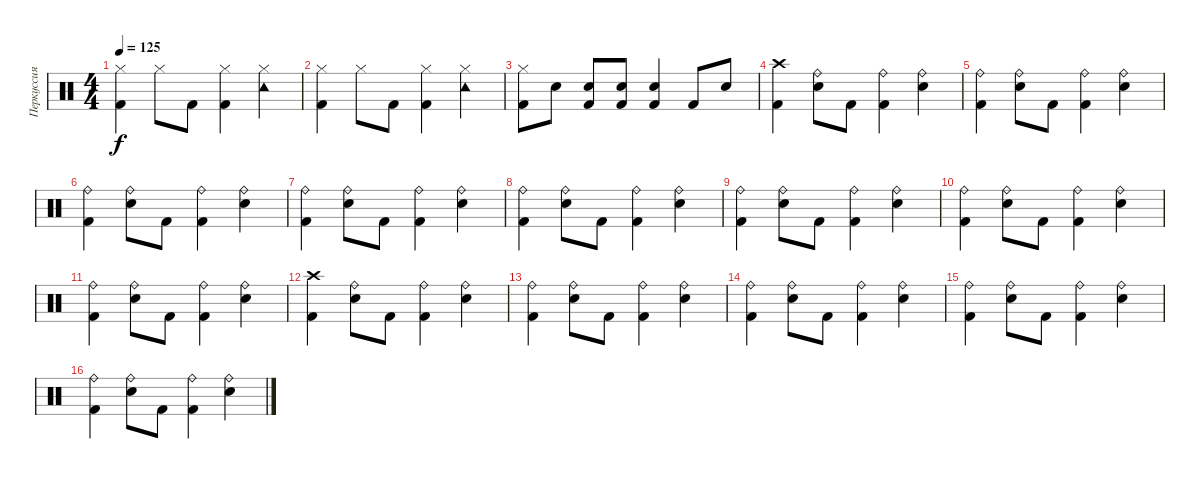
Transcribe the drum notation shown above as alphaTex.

\track ("Перкуссия" "Перкуссия") {instrument percussion}
\staff {score}
\articulation defaults
\ts (4 4)
\tempo 125
\clef neutral
\ks c
("Hi-Hat (closed)" "Kick (hit) 2").4{dy f} "Hi-Hat (closed)".8 "Kick (hit) 2".8 ("Hi-Hat (closed)" "Kick (hit) 2").4 ("Hi-Hat (closed)" "Tambourine (hit)").4 |
("Hi-Hat (closed)" "Kick (hit) 2").4 "Hi-Hat (closed)".8 "Kick (hit) 2".8 ("Hi-Hat (closed)" "Kick (hit) 2").4 ("Hi-Hat (closed)" "Tambourine (hit)").4 |
("Hi-Hat (closed)" "Kick (hit) 2").8 "Snare (hit) 2".8 ("Snare (hit) 2" "Kick (hit) 2").8 ("Snare (hit) 2" "Kick (hit) 2").8 ("Snare (hit) 2" "Kick (hit) 2").4 "Kick (hit) 2".8 "Snare (hit) 2".8 |
("Crash high (hit)" "Kick (hit) 2").4 ("Ride (bell)" "Snare (hit) 2").8 "Kick (hit) 2".8 ("Ride (bell)" "Kick (hit) 2").4 ("Ride (bell)" "Snare (hit) 2").4 |
("Ride (bell)" "Kick (hit) 2").4 ("Ride (bell)" "Snare (hit) 2").8 "Kick (hit) 2".8 ("Ride (bell)" "Kick (hit) 2").4 ("Ride (bell)" "Snare (hit) 2").4 |
("Ride (bell)" "Kick (hit) 2").4 ("Ride (bell)" "Snare (hit) 2").8 "Kick (hit) 2".8 ("Ride (bell)" "Kick (hit) 2").4 ("Ride (bell)" "Snare (hit) 2").4 |
("Ride (bell)" "Kick (hit) 2").4 ("Ride (bell)" "Snare (hit) 2").8 "Kick (hit) 2".8 ("Ride (bell)" "Kick (hit) 2").4 ("Ride (bell)" "Snare (hit) 2").4 |
("Ride (bell)" "Kick (hit) 2").4 ("Ride (bell)" "Snare (hit) 2").8 "Kick (hit) 2".8 ("Ride (bell)" "Kick (hit) 2").4 ("Ride (bell)" "Snare (hit) 2").4 |
("Ride (bell)" "Kick (hit) 2").4 ("Ride (bell)" "Snare (hit) 2").8 "Kick (hit) 2".8 ("Ride (bell)" "Kick (hit) 2").4 ("Ride (bell)" "Snare (hit) 2").4 |
("Ride (bell)" "Kick (hit) 2").4 ("Ride (bell)" "Snare (hit) 2").8 "Kick (hit) 2".8 ("Ride (bell)" "Kick (hit) 2").4 ("Ride (bell)" "Snare (hit) 2").4 |
("Ride (bell)" "Kick (hit) 2").4 ("Ride (bell)" "Snare (hit) 2").8 "Kick (hit) 2".8 ("Ride (bell)" "Kick (hit) 2").4 ("Ride (bell)" "Snare (hit) 2").4 |
("Crash high (hit)" "Kick (hit) 2").4 ("Ride (bell)" "Snare (hit) 2").8 "Kick (hit) 2".8 ("Ride (bell)" "Kick (hit) 2").4 ("Ride (bell)" "Snare (hit) 2").4 |
("Ride (bell)" "Kick (hit) 2").4 ("Ride (bell)" "Snare (hit) 2").8 "Kick (hit) 2".8 ("Ride (bell)" "Kick (hit) 2").4 ("Ride (bell)" "Snare (hit) 2").4 |
("Ride (bell)" "Kick (hit) 2").4 ("Ride (bell)" "Snare (hit) 2").8 "Kick (hit) 2".8 ("Ride (bell)" "Kick (hit) 2").4 ("Ride (bell)" "Snare (hit) 2").4 |
("Ride (bell)" "Kick (hit) 2").4 ("Ride (bell)" "Snare (hit) 2").8 "Kick (hit) 2".8 ("Ride (bell)" "Kick (hit) 2").4 ("Ride (bell)" "Snare (hit) 2").4 |
("Ride (bell)" "Kick (hit) 2").4 ("Ride (bell)" "Snare (hit) 2").8 "Kick (hit) 2".8 ("Ride (bell)" "Kick (hit) 2").4 ("Ride (bell)" "Snare (hit) 2").4
